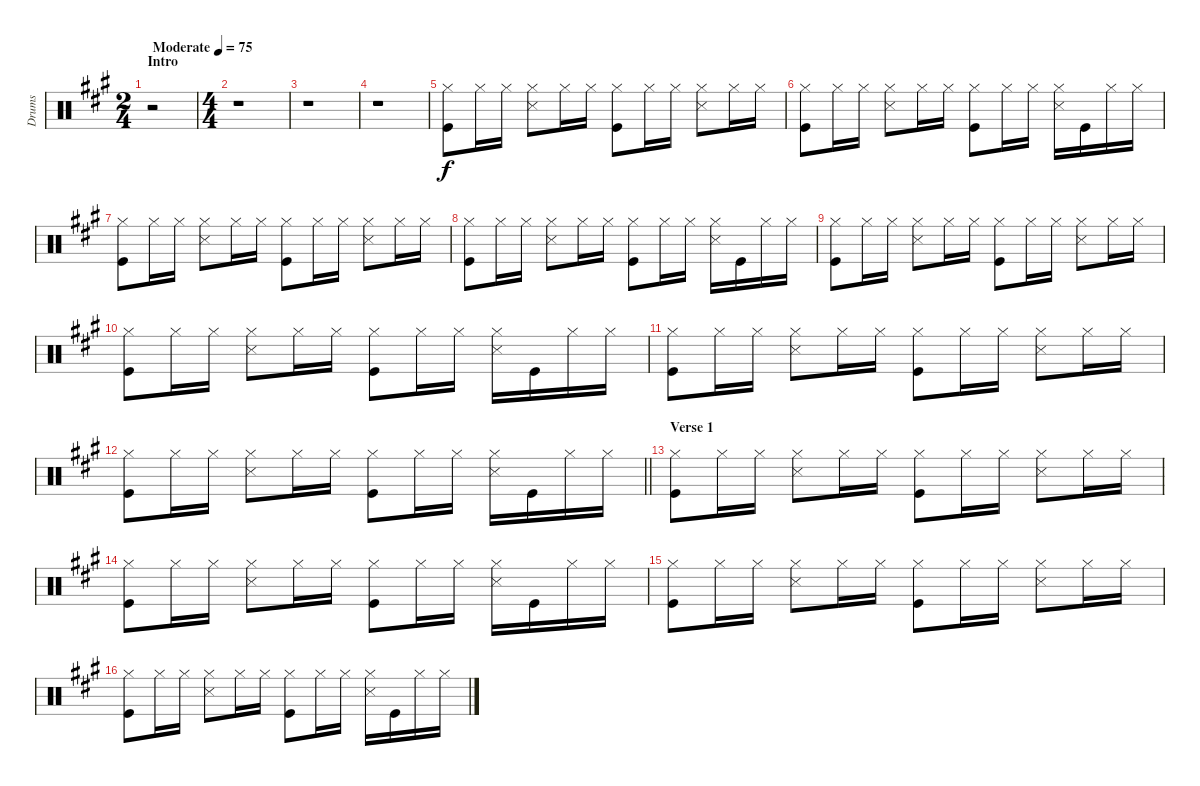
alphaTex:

\track ("Drums" "Drums") {instrument percussion}
\staff {score}
\articulation defaults
\ts (2 4)
\section ("" "Intro")
\tempo (75 "Moderate")
\clef neutral
\ks f#minor
r.2{dy f} |
\ts (4 4)
r.1 |
r.1 |
r.1{volume 2} |
("Hi-Hat (closed)" "Kick (hit)").8{volume 13} "Hi-Hat (closed)".16 "Hi-Hat (closed)".16 ("Hi-Hat (closed)" "Snare (side stick) 3").8 "Hi-Hat (closed)".16 "Hi-Hat (closed)".16 ("Hi-Hat (closed)" "Kick (hit)").8 "Hi-Hat (closed)".16 "Hi-Hat (closed)".16 ("Hi-Hat (closed)" "Snare (side stick) 3").8 "Hi-Hat (closed)".16 "Hi-Hat (closed)".16 |
("Hi-Hat (closed)" "Kick (hit)").8 "Hi-Hat (closed)".16 "Hi-Hat (closed)".16 ("Hi-Hat (closed)" "Snare (side stick) 3").8 "Hi-Hat (closed)".16 "Hi-Hat (closed)".16 ("Hi-Hat (closed)" "Kick (hit)").8 "Hi-Hat (closed)".16 "Hi-Hat (closed)".16 ("Hi-Hat (closed)" "Snare (side stick) 3").16 "Kick (hit)".16 "Hi-Hat (closed)".16 "Hi-Hat (closed)".16 |
("Hi-Hat (closed)" "Kick (hit)").8 "Hi-Hat (closed)".16 "Hi-Hat (closed)".16 ("Hi-Hat (closed)" "Snare (side stick) 3").8 "Hi-Hat (closed)".16 "Hi-Hat (closed)".16 ("Hi-Hat (closed)" "Kick (hit)").8 "Hi-Hat (closed)".16 "Hi-Hat (closed)".16 ("Hi-Hat (closed)" "Snare (side stick) 3").8 "Hi-Hat (closed)".16 "Hi-Hat (closed)".16 |
("Hi-Hat (closed)" "Kick (hit)").8 "Hi-Hat (closed)".16 "Hi-Hat (closed)".16 ("Hi-Hat (closed)" "Snare (side stick) 3").8 "Hi-Hat (closed)".16 "Hi-Hat (closed)".16 ("Hi-Hat (closed)" "Kick (hit)").8 "Hi-Hat (closed)".16 "Hi-Hat (closed)".16 ("Hi-Hat (closed)" "Snare (side stick) 3").16 "Kick (hit)".16 "Hi-Hat (closed)".16 "Hi-Hat (closed)".16 |
("Hi-Hat (closed)" "Kick (hit)").8 "Hi-Hat (closed)".16 "Hi-Hat (closed)".16 ("Hi-Hat (closed)" "Snare (side stick) 3").8 "Hi-Hat (closed)".16 "Hi-Hat (closed)".16 ("Hi-Hat (closed)" "Kick (hit)").8 "Hi-Hat (closed)".16 "Hi-Hat (closed)".16 ("Hi-Hat (closed)" "Snare (side stick) 3").8 "Hi-Hat (closed)".16 "Hi-Hat (closed)".16 |
("Hi-Hat (closed)" "Kick (hit)").8 "Hi-Hat (closed)".16 "Hi-Hat (closed)".16 ("Hi-Hat (closed)" "Snare (side stick) 3").8 "Hi-Hat (closed)".16 "Hi-Hat (closed)".16 ("Hi-Hat (closed)" "Kick (hit)").8 "Hi-Hat (closed)".16 "Hi-Hat (closed)".16 ("Hi-Hat (closed)" "Snare (side stick) 3").16 "Kick (hit)".16 "Hi-Hat (closed)".16 "Hi-Hat (closed)".16 |
("Hi-Hat (closed)" "Kick (hit)").8 "Hi-Hat (closed)".16 "Hi-Hat (closed)".16 ("Hi-Hat (closed)" "Snare (side stick) 3").8 "Hi-Hat (closed)".16 "Hi-Hat (closed)".16 ("Hi-Hat (closed)" "Kick (hit)").8 "Hi-Hat (closed)".16 "Hi-Hat (closed)".16 ("Hi-Hat (closed)" "Snare (side stick) 3").8 "Hi-Hat (closed)".16 "Hi-Hat (closed)".16 |
\barLineRight lightlight
("Hi-Hat (closed)" "Kick (hit)").8 "Hi-Hat (closed)".16 "Hi-Hat (closed)".16 ("Hi-Hat (closed)" "Snare (side stick) 3").8 "Hi-Hat (closed)".16 "Hi-Hat (closed)".16 ("Hi-Hat (closed)" "Kick (hit)").8 "Hi-Hat (closed)".16 "Hi-Hat (closed)".16 ("Hi-Hat (closed)" "Snare (side stick) 3").16 "Kick (hit)".16 "Hi-Hat (closed)".16 "Hi-Hat (closed)".16 |
\section ("" "Verse 1")
("Hi-Hat (closed)" "Kick (hit)").8 "Hi-Hat (closed)".16 "Hi-Hat (closed)".16 ("Hi-Hat (closed)" "Snare (side stick) 3").8 "Hi-Hat (closed)".16 "Hi-Hat (closed)".16 ("Hi-Hat (closed)" "Kick (hit)").8 "Hi-Hat (closed)".16 "Hi-Hat (closed)".16 ("Hi-Hat (closed)" "Snare (side stick) 3").8 "Hi-Hat (closed)".16 "Hi-Hat (closed)".16 |
("Hi-Hat (closed)" "Kick (hit)").8 "Hi-Hat (closed)".16 "Hi-Hat (closed)".16 ("Hi-Hat (closed)" "Snare (side stick) 3").8 "Hi-Hat (closed)".16 "Hi-Hat (closed)".16 ("Hi-Hat (closed)" "Kick (hit)").8 "Hi-Hat (closed)".16 "Hi-Hat (closed)".16 ("Hi-Hat (closed)" "Snare (side stick) 3").16 "Kick (hit)".16 "Hi-Hat (closed)".16 "Hi-Hat (closed)".16 |
("Hi-Hat (closed)" "Kick (hit)").8 "Hi-Hat (closed)".16 "Hi-Hat (closed)".16 ("Hi-Hat (closed)" "Snare (side stick) 3").8 "Hi-Hat (closed)".16 "Hi-Hat (closed)".16 ("Hi-Hat (closed)" "Kick (hit)").8 "Hi-Hat (closed)".16 "Hi-Hat (closed)".16 ("Hi-Hat (closed)" "Snare (side stick) 3").8 "Hi-Hat (closed)".16 "Hi-Hat (closed)".16 |
("Hi-Hat (closed)" "Kick (hit)").8 "Hi-Hat (closed)".16 "Hi-Hat (closed)".16 ("Hi-Hat (closed)" "Snare (side stick) 3").8 "Hi-Hat (closed)".16 "Hi-Hat (closed)".16 ("Hi-Hat (closed)" "Kick (hit)").8 "Hi-Hat (closed)".16 "Hi-Hat (closed)".16 ("Hi-Hat (closed)" "Snare (side stick) 3").16 "Kick (hit)".16 "Hi-Hat (closed)".16 "Hi-Hat (closed)".16
